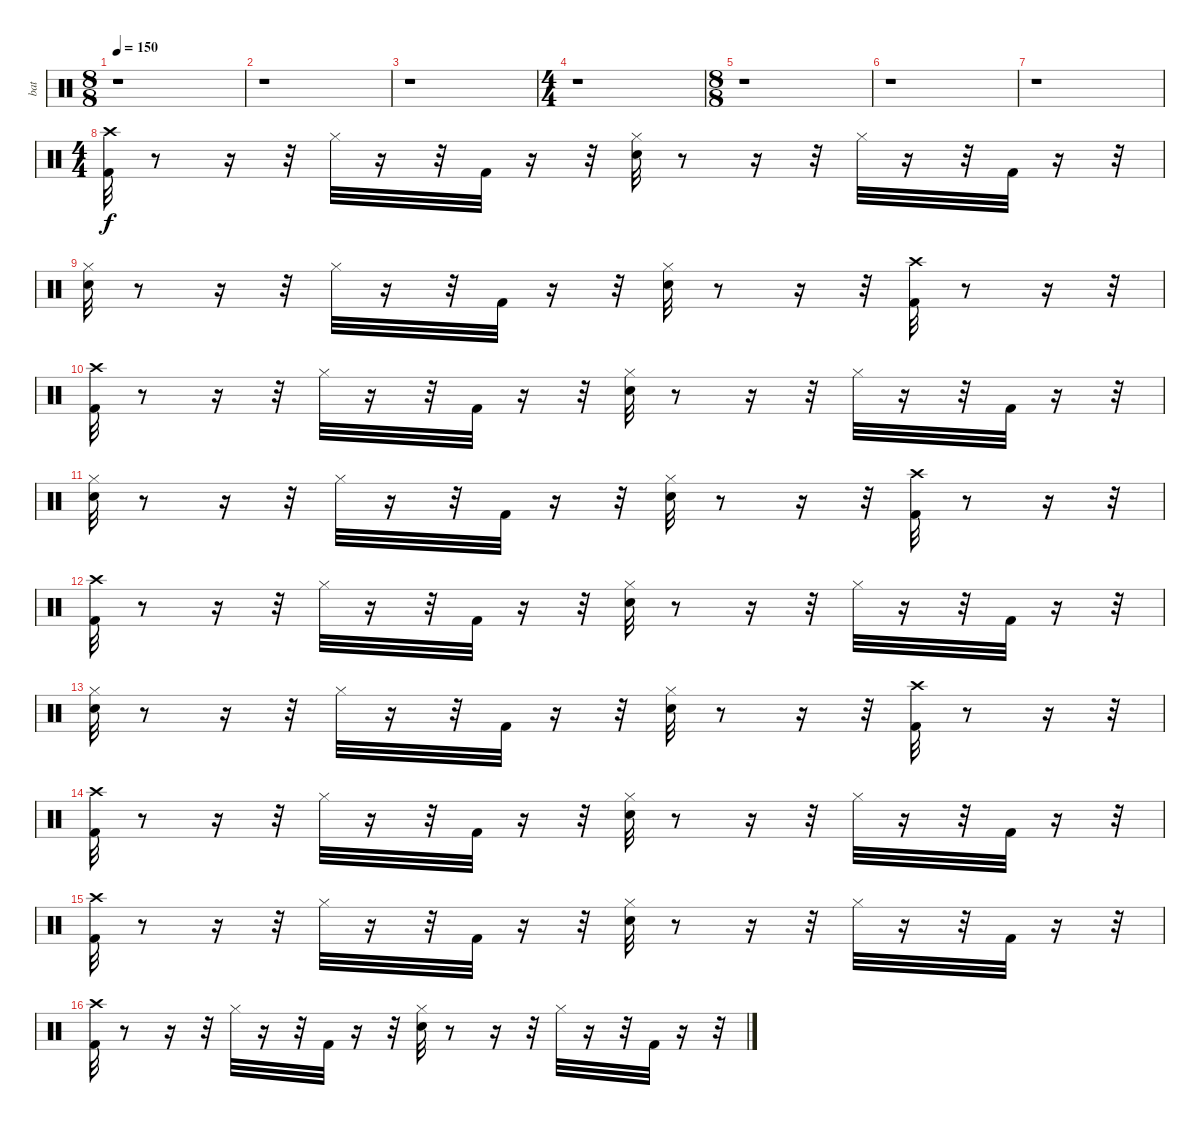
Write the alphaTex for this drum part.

\track ("bat" "bat") {instrument percussion}
\staff {score}
\articulation defaults
\ts (8 8)
\tempo 150
\clef neutral
\ks c
r.1{dy fff} |
r.1 |
r.1 |
\ts (4 4)
r.1 |
\ts (8 8)
r.1 |
r.1 |
r.1 |
\ts (4 4)
("Kick (hit) 2" "Crash high (hit)").32{dy f} r.8 r.16 r.32 "Hi-Hat (closed)".32 r.16 r.32 "Kick (hit) 2".32 r.16 r.32 ("Snare (hit) 2" "Hi-Hat (closed)").32 r.8 r.16 r.32 "Hi-Hat (closed)".32 r.16 r.32 "Kick (hit) 2".32 r.16 r.32 |
("Snare (hit) 2" "Hi-Hat (closed)").32 r.8 r.16 r.32 "Hi-Hat (closed)".32 r.16 r.32 "Kick (hit) 2".32 r.16 r.32 ("Snare (hit) 2" "Hi-Hat (closed)").32 r.8 r.16 r.32 ("Kick (hit) 2" "Crash high (hit)").32 r.8 r.16 r.32 |
("Kick (hit) 2" "Crash high (hit)").32 r.8 r.16 r.32 "Hi-Hat (closed)".32 r.16 r.32 "Kick (hit) 2".32 r.16 r.32 ("Snare (hit) 2" "Hi-Hat (closed)").32 r.8 r.16 r.32 "Hi-Hat (closed)".32 r.16 r.32 "Kick (hit) 2".32 r.16 r.32 |
("Snare (hit) 2" "Hi-Hat (closed)").32 r.8 r.16 r.32 "Hi-Hat (closed)".32 r.16 r.32 "Kick (hit) 2".32 r.16 r.32 ("Snare (hit) 2" "Hi-Hat (closed)").32 r.8 r.16 r.32 ("Kick (hit) 2" "Crash high (hit)").32 r.8 r.16 r.32 |
("Kick (hit) 2" "Crash high (hit)").32 r.8 r.16 r.32 "Hi-Hat (closed)".32 r.16 r.32 "Kick (hit) 2".32 r.16 r.32 ("Snare (hit) 2" "Hi-Hat (closed)").32 r.8 r.16 r.32 "Hi-Hat (closed)".32 r.16 r.32 "Kick (hit) 2".32 r.16 r.32 |
("Snare (hit) 2" "Hi-Hat (closed)").32 r.8 r.16 r.32 "Hi-Hat (closed)".32 r.16 r.32 "Kick (hit) 2".32 r.16 r.32 ("Snare (hit) 2" "Hi-Hat (closed)").32 r.8 r.16 r.32 ("Kick (hit) 2" "Crash high (hit)").32 r.8 r.16 r.32 |
("Kick (hit) 2" "Crash high (hit)").32 r.8 r.16 r.32 "Hi-Hat (closed)".32 r.16 r.32 "Kick (hit) 2".32 r.16 r.32 ("Snare (hit) 2" "Hi-Hat (closed)").32 r.8 r.16 r.32 "Hi-Hat (closed)".32 r.16 r.32 "Kick (hit) 2".32 r.16 r.32 |
("Kick (hit) 2" "Crash high (hit)").32 r.8 r.16 r.32 "Hi-Hat (closed)".32 r.16 r.32 "Kick (hit) 2".32 r.16 r.32 ("Snare (hit) 2" "Hi-Hat (closed)").32 r.8 r.16 r.32 "Hi-Hat (closed)".32 r.16 r.32 "Kick (hit) 2".32 r.16 r.32 |
("Kick (hit) 2" "Crash high (hit)").32 r.8 r.16 r.32 "Hi-Hat (closed)".32 r.16 r.32 "Kick (hit) 2".32 r.16 r.32 ("Snare (hit) 2" "Hi-Hat (closed)").32 r.8 r.16 r.32 "Hi-Hat (closed)".32 r.16 r.32 "Kick (hit) 2".32 r.16 r.32
